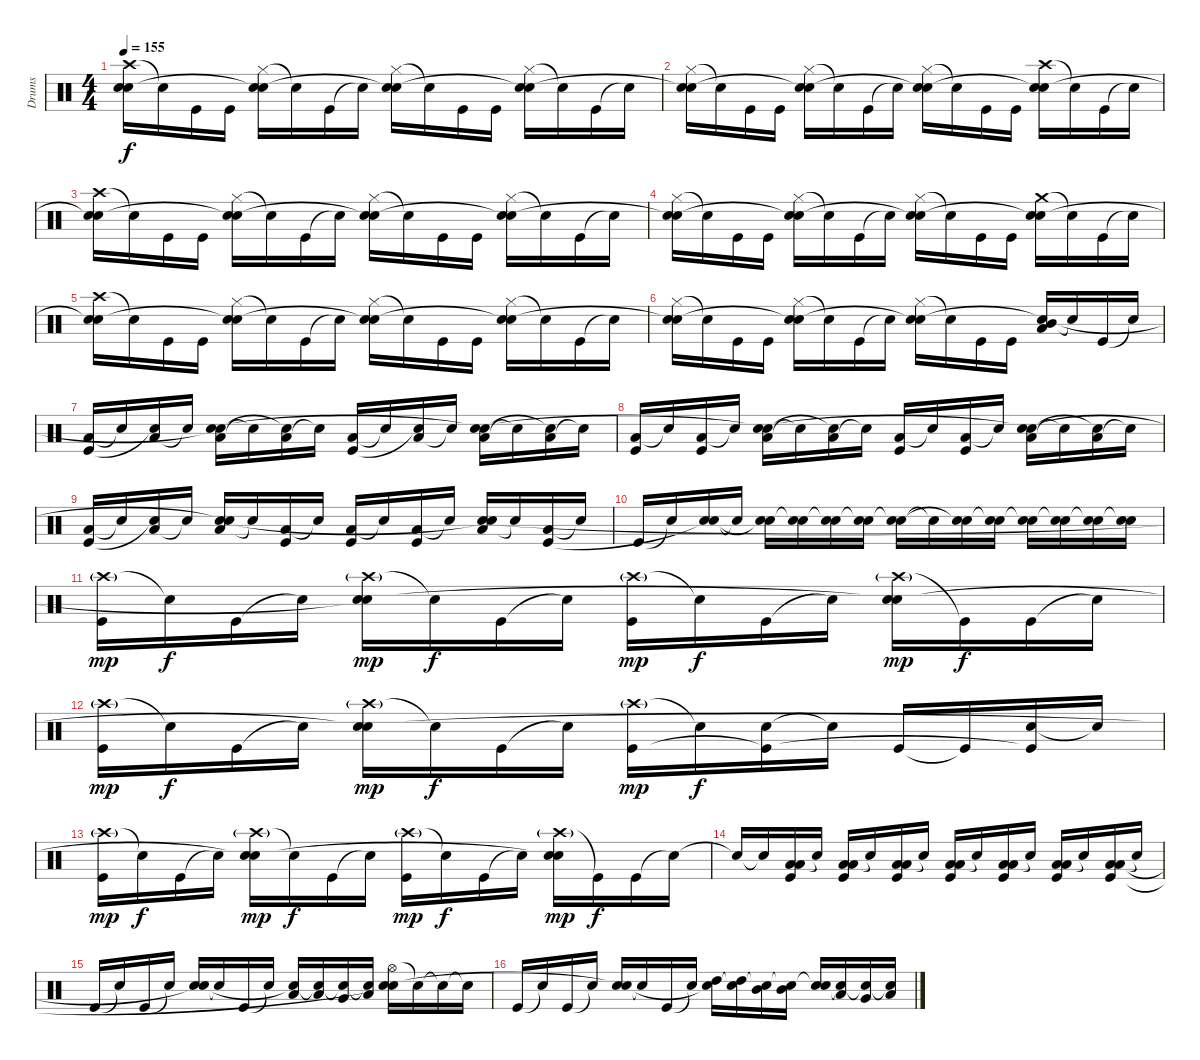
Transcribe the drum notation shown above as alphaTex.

\track ("Drums" "Drums") {instrument percussion}
\staff {score}
\articulation defaults
\ts (4 4)
\tempo 155
\clef neutral
\ks c
("Crash high (hit)" "Electric Snare (hit)" "Snare (hit)"{t}).16{dy f} "Snare (hit)"{t}.16 "Kick (hit)".16 "Kick (hit)".16 ("Hi-Hat (closed)" "Electric Snare (hit)" "Snare (hit)"{t}).16 "Snare (hit)"{t}.16 "Kick (hit)".16 "Snare (hit)"{t}.16 ("Hi-Hat (closed)" "Electric Snare (hit)" "Snare (hit)"{t}).16 "Snare (hit)"{t}.16 "Kick (hit)".16 "Kick (hit)".16 ("Hi-Hat (closed)" "Electric Snare (hit)" "Snare (hit)"{t}).16 "Snare (hit)"{t}.16 "Kick (hit)".16 "Snare (hit)"{t}.16 |
("Hi-Hat (closed)" "Electric Snare (hit)" "Snare (hit)"{t}).16 "Snare (hit)"{t}.16 "Kick (hit)".16 "Kick (hit)".16 ("Hi-Hat (closed)" "Electric Snare (hit)" "Snare (hit)"{t}).16 "Snare (hit)"{t}.16 "Kick (hit)".16 "Snare (hit)"{t}.16 ("Hi-Hat (closed)" "Electric Snare (hit)" "Snare (hit)"{t}).16 "Snare (hit)"{t}.16 "Kick (hit)".16 "Kick (hit)".16 ("Crash high (hit)" "Electric Snare (hit)" "Snare (hit)"{t}).16 "Snare (hit)"{t}.16 "Kick (hit)".16 "Snare (hit)"{t}.16 |
("Crash high (hit)" "Electric Snare (hit)" "Snare (hit)"{t}).16 "Snare (hit)"{t}.16 "Kick (hit)".16 "Kick (hit)".16 ("Hi-Hat (closed)" "Electric Snare (hit)" "Snare (hit)"{t}).16 "Snare (hit)"{t}.16 "Kick (hit)".16 "Snare (hit)"{t}.16 ("Hi-Hat (closed)" "Electric Snare (hit)" "Snare (hit)"{t}).16 "Snare (hit)"{t}.16 "Kick (hit)".16 "Kick (hit)".16 ("Hi-Hat (closed)" "Electric Snare (hit)" "Snare (hit)"{t}).16 "Snare (hit)"{t}.16 "Kick (hit)".16 "Snare (hit)"{t}.16 |
("Hi-Hat (closed)" "Electric Snare (hit)" "Snare (hit)"{t}).16 "Snare (hit)"{t}.16 "Kick (hit)".16 "Kick (hit)".16 ("Hi-Hat (closed)" "Electric Snare (hit)" "Snare (hit)"{t}).16 "Snare (hit)"{t}.16 "Kick (hit)".16 "Snare (hit)"{t}.16 ("Hi-Hat (closed)" "Electric Snare (hit)" "Snare (hit)"{t}).16 "Snare (hit)"{t}.16 "Kick (hit)".16 "Kick (hit)".16 ("Crash medium (hit)" "Electric Snare (hit)" "Snare (hit)"{t}).16 "Snare (hit)"{t}.16 "Kick (hit)".16 "Snare (hit)"{t}.16 |
("Crash high (hit)" "Electric Snare (hit)" "Snare (hit)"{t}).16 "Snare (hit)"{t}.16 "Kick (hit)".16 "Kick (hit)".16 ("Hi-Hat (closed)" "Electric Snare (hit)" "Snare (hit)"{t}).16 "Snare (hit)"{t}.16 "Kick (hit)".16 "Snare (hit)"{t}.16 ("Hi-Hat (closed)" "Electric Snare (hit)" "Snare (hit)"{t}).16 "Snare (hit)"{t}.16 "Kick (hit)".16 "Kick (hit)".16 ("Hi-Hat (closed)" "Electric Snare (hit)" "Snare (hit)"{t}).16 "Snare (hit)"{t}.16 "Kick (hit)".16 "Snare (hit)"{t}.16 |
("Hi-Hat (closed)" "Electric Snare (hit)" "Snare (hit)"{t}).16 "Snare (hit)"{t}.16 "Kick (hit)".16 "Kick (hit)".16 ("Hi-Hat (closed)" "Electric Snare (hit)" "Snare (hit)"{t}).16 "Snare (hit)"{t}.16 "Kick (hit)".16 "Snare (hit)"{t}.16 ("Hi-Hat (closed)" "Electric Snare (hit)" "Snare (hit)"{t}).16 "Snare (hit)"{t}.16 "Kick (hit)".16 "Kick (hit)".16 ("Mid Tom (hit)" "Low Tom (hit)" "Snare (hit)"{t}).16 "Snare (hit)"{t}.16 "Kick (hit)".16 "Snare (hit)"{t}.16 |
("Low Tom (hit)" "Kick (hit)").16 "Snare (hit)"{t}.16 ("Low Tom (hit)" "Snare (hit)"{t}).16 "Snare (hit)"{t}.16 ("Low Tom (hit)" "Electric Snare (hit)" "Snare (hit)"{t}).16 "Snare (hit)"{t}.16 ("Low Tom (hit)" "Snare (hit)"{t}).16 "Snare (hit)"{t}.16 ("Low Tom (hit)" "Kick (hit)").16 "Snare (hit)"{t}.16 ("Low Tom (hit)" "Snare (hit)"{t}).16 "Snare (hit)"{t}.16 ("Low Tom (hit)" "Electric Snare (hit)" "Snare (hit)"{t}).16 "Snare (hit)"{t}.16 ("Low Tom (hit)" "Snare (hit)"{t}).16 "Snare (hit)"{t}.16 |
("Low Tom (hit)" "Kick (hit)").16 "Snare (hit)"{t}.16 ("Low Tom (hit)" "Kick (hit)").16 "Snare (hit)"{t}.16 ("Low Tom (hit)" "Electric Snare (hit)" "Snare (hit)"{t}).16 "Snare (hit)"{t}.16 ("Low Tom (hit)" "Snare (hit)"{t}).16 "Snare (hit)"{t}.16 ("Low Tom (hit)" "Kick (hit)").16 "Snare (hit)"{t}.16 ("Low Tom (hit)" "Kick (hit)").16 "Snare (hit)"{t}.16 ("Low Tom (hit)" "Electric Snare (hit)" "Snare (hit)"{t}).16 "Snare (hit)"{t}.16 ("Low Tom (hit)" "Snare (hit)"{t}).16 "Snare (hit)"{t}.16 |
("Low Tom (hit)" "Kick (hit)").16 "Snare (hit)"{t}.16 ("Low Tom (hit)" "Snare (hit)"{t}).16 "Snare (hit)"{t}.16 ("Low Tom (hit)" "Electric Snare (hit)" "Snare (hit)"{t}).16 "Snare (hit)"{t}.16 ("Low Tom (hit)" "Kick (hit)").16 "Snare (hit)"{t}.16 ("Low Tom (hit)" "Kick (hit)").16 "Snare (hit)"{t}.16 ("Low Tom (hit)" "Kick (hit)").16 "Snare (hit)"{t}.16 ("Low Tom (hit)" "Electric Snare (hit)" "Snare (hit)"{t}).16 "Snare (hit)"{t}.16 ("Low Tom (hit)" "Kick (hit)").16 "Snare (hit)"{t}.16 |
"Kick (hit)".16 "Snare (hit)"{t}.16 ("Electric Snare (hit)" "Snare (hit)"{t}).16 "Snare (hit)"{t}.16 ("Electric Snare (hit)" "Snare (hit)"{t}).16 ("Electric Snare (hit)" "Snare (hit)"{t}).16 ("Electric Snare (hit)" "Snare (hit)"{t}).16 ("Electric Snare (hit)" "Snare (hit)"{t}).16 ("Electric Snare (hit)" "Snare (hit)"{t}).16 "Snare (hit)"{t}.16 ("Electric Snare (hit)" "Snare (hit)"{t}).16 ("Electric Snare (hit)" "Snare (hit)"{t}).16 ("Electric Snare (hit)" "Snare (hit)"{t}).16 ("Electric Snare (hit)" "Snare (hit)"{t}).16 ("Electric Snare (hit)" "Snare (hit)"{t}).16 ("Electric Snare (hit)" "Snare (hit)"{t}).16 |
("Crash high (hit)"{g} "Kick (hit)").16{dy mp} "Snare (hit)"{t}.16{dy f} "Kick (hit)".16 "Snare (hit)"{t}.16 ("Crash high (hit)"{g} "Electric Snare (hit)" "Snare (hit)"{t}).16{dy mp} "Snare (hit)"{t}.16{dy f} "Kick (hit)".16 "Snare (hit)"{t}.16 ("Crash high (hit)"{g} "Kick (hit)").16{dy mp} "Snare (hit)"{t}.16{dy f} "Kick (hit)".16 "Snare (hit)"{t}.16 ("Crash high (hit)"{g} "Electric Snare (hit)" "Snare (hit)"{t}).16{dy mp} "Kick (hit)"{t}.16{dy f} "Kick (hit)".16 "Snare (hit)"{t}.16 |
("Crash high (hit)"{g} "Kick (hit)").16{dy mp} "Snare (hit)"{t}.16{dy f} "Kick (hit)".16 "Snare (hit)"{t}.16 ("Crash high (hit)"{g} "Electric Snare (hit)" "Snare (hit)"{t}).16{dy mp} "Snare (hit)"{t}.16{dy f} "Kick (hit)".16 "Snare (hit)"{t}.16 ("Crash high (hit)"{g} "Kick (hit)").16{dy mp} "Snare (hit)"{t}.16{dy f} ("Electric Snare (hit)" "Kick (hit)"{t}).16 "Snare (hit)"{t}.16 "Kick (hit)".16 "Kick (hit)"{t}.16 ("Electric Snare (hit)" "Kick (hit)"{t}).16 "Snare (hit)"{t}.16 |
("Crash high (hit)"{g} "Kick (hit)").16{dy mp} "Snare (hit)"{t}.16{dy f} "Kick (hit)".16 "Snare (hit)"{t}.16 ("Crash high (hit)"{g} "Electric Snare (hit)" "Snare (hit)"{t}).16{dy mp} "Snare (hit)"{t}.16{dy f} "Kick (hit)".16 "Snare (hit)"{t}.16 ("Crash high (hit)"{g} "Kick (hit)").16{dy mp} "Snare (hit)"{t}.16{dy f} "Kick (hit)".16 "Snare (hit)"{t}.16 ("Crash high (hit)"{g} "Electric Snare (hit)" "Snare (hit)"{t}).16{dy mp} "Kick (hit)"{t}.16{dy f} "Kick (hit)".16 "Snare (hit)"{t}.16 |
"Snare (hit)"{t}.16 "Snare (hit)"{t}.16 ("Low Floor Tom (hit)" "Low Tom (hit)" "Kick (hit)").16 "Snare (hit)"{t}.16 ("Low Floor Tom (hit)" "Low Tom (hit)" "Kick (hit)").16 "Snare (hit)"{t}.16 ("Low Floor Tom (hit)" "Low Tom (hit)" "Kick (hit)").16 "Snare (hit)"{t}.16 ("Low Floor Tom (hit)" "Low Tom (hit)" "Kick (hit)").16 "Snare (hit)"{t}.16 ("Low Floor Tom (hit)" "Low Tom (hit)" "Kick (hit)").16 "Snare (hit)"{t}.16 ("Low Floor Tom (hit)" "Low Tom (hit)" "Kick (hit)").16 "Snare (hit)"{t}.16 ("Low Floor Tom (hit)" "Low Tom (hit)" "Kick (hit)").16 "Snare (hit)"{t}.16 |
"Kick (hit)".16 "Snare (hit)"{t}.16 "Kick (hit)".16 "Snare (hit)"{t}.16 ("Electric Snare (hit)" "Snare (hit)"{t}).16 "Snare (hit)"{t}.16 "Kick (hit)".16 "Snare (hit)"{t}.16 ("Low Tom (hit)" "Snare (hit)"{t}).16 ("Low Tom (hit)" "Snare (hit)"{t}).16 ("Very Low Tom (hit)" "Snare (hit)"{t}).16 ("Low Floor Tom (hit)" "Snare (hit)"{t}).16 ("Hi-Hat (open)" "Electric Snare (hit)" "Snare (hit)"{t}).16 "Snare (hit)"{t}.16 "Snare (hit)"{t}.16 "Snare (hit)"{t}.16 |
"Kick (hit)".16 "Snare (hit)"{t}.16 "Kick (hit)".16 "Snare (hit)"{t}.16 ("Electric Snare (hit)" "Snare (hit)"{t}).16 "Snare (hit)"{t}.16 "Kick (hit)".16 "Snare (hit)"{t}.16 ("High Tom (hit)" "Snare (hit)"{t}).16 ("High Tom (hit)" "Snare (hit)"{t}).16 ("Mid Tom (hit)" "Snare (hit)"{t}).16 ("Mid Tom (hit)" "Snare (hit)"{t}).16 ("Electric Snare (hit)" "Snare (hit)"{t}).16 ("Low Tom (hit)" "Snare (hit)"{t}).16 ("Very Low Tom (hit)" "Snare (hit)"{t}).16 ("Low Floor Tom (hit)" "Snare (hit)"{t}).16
